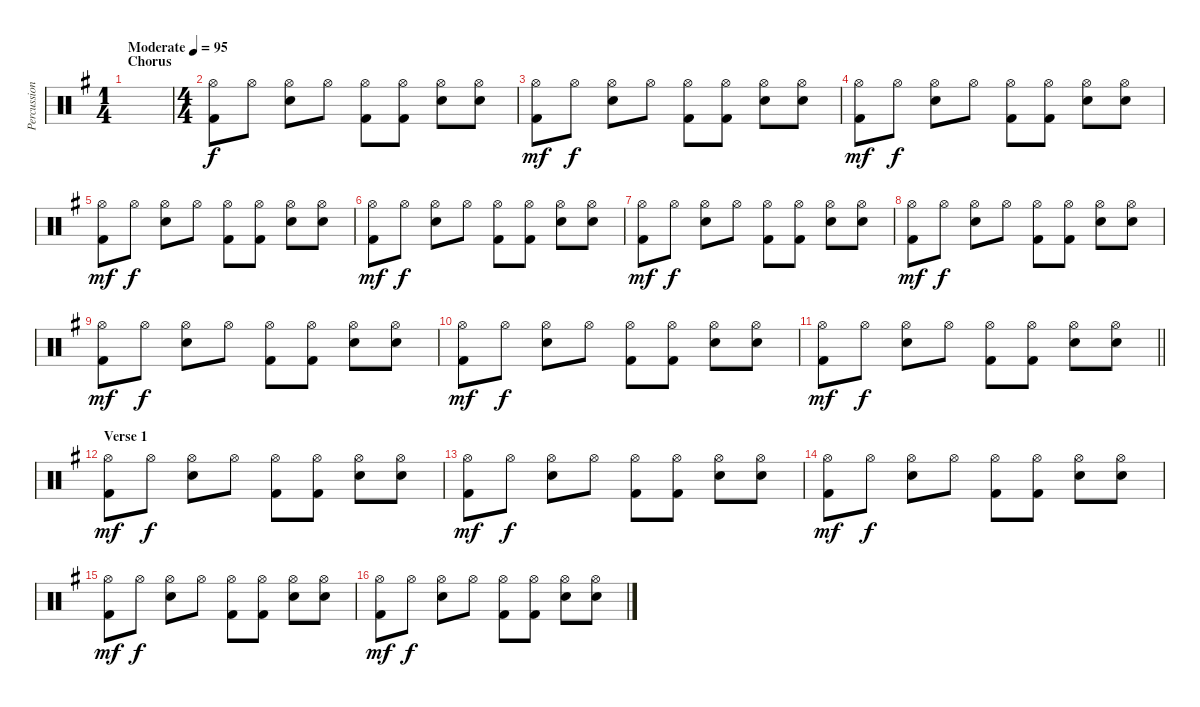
\track ("Percussion" "Percussion") {instrument percussion}
\staff {score}
\articulation defaults
\ts (1 4)
\section ("" "Chorus")
\tempo (95 "Moderate")
\clef neutral
\ks eminor
|
\ts (4 4)
("Hi-Hat (open)" "Kick (hit) 2").8 "Hi-Hat (open)".8{dy f} ("Hi-Hat (open)" "Snare (hit) 2").8 "Hi-Hat (open)".8 ("Hi-Hat (open)" "Kick (hit) 2").8 ("Hi-Hat (open)" "Kick (hit) 2").8 ("Hi-Hat (open)" "Snare (hit) 2").8 ("Hi-Hat (open)" "Snare (hit) 2").8 |
("Hi-Hat (open)" "Kick (hit) 2").8{dy mf} "Hi-Hat (open)".8{dy f} ("Hi-Hat (open)" "Snare (hit) 2").8 "Hi-Hat (open)".8 ("Hi-Hat (open)" "Kick (hit) 2").8 ("Hi-Hat (open)" "Kick (hit) 2").8 ("Hi-Hat (open)" "Snare (hit) 2").8 ("Hi-Hat (open)" "Snare (hit) 2").8 |
("Hi-Hat (open)" "Kick (hit) 2").8{dy mf} "Hi-Hat (open)".8{dy f} ("Hi-Hat (open)" "Snare (hit) 2").8 "Hi-Hat (open)".8 ("Hi-Hat (open)" "Kick (hit) 2").8 ("Hi-Hat (open)" "Kick (hit) 2").8 ("Hi-Hat (open)" "Snare (hit) 2").8 ("Hi-Hat (open)" "Snare (hit) 2").8 |
("Hi-Hat (open)" "Kick (hit) 2").8{dy mf} "Hi-Hat (open)".8{dy f} ("Hi-Hat (open)" "Snare (hit) 2").8 "Hi-Hat (open)".8 ("Hi-Hat (open)" "Kick (hit) 2").8 ("Hi-Hat (open)" "Kick (hit) 2").8 ("Hi-Hat (open)" "Snare (hit) 2").8 ("Hi-Hat (open)" "Snare (hit) 2").8 |
("Hi-Hat (open)" "Kick (hit) 2").8{dy mf} "Hi-Hat (open)".8{dy f} ("Hi-Hat (open)" "Snare (hit) 2").8 "Hi-Hat (open)".8 ("Hi-Hat (open)" "Kick (hit) 2").8 ("Hi-Hat (open)" "Kick (hit) 2").8 ("Hi-Hat (open)" "Snare (hit) 2").8 ("Hi-Hat (open)" "Snare (hit) 2").8 |
("Hi-Hat (open)" "Kick (hit) 2").8{dy mf} "Hi-Hat (open)".8{dy f} ("Hi-Hat (open)" "Snare (hit) 2").8 "Hi-Hat (open)".8 ("Hi-Hat (open)" "Kick (hit) 2").8 ("Hi-Hat (open)" "Kick (hit) 2").8 ("Hi-Hat (open)" "Snare (hit) 2").8 ("Hi-Hat (open)" "Snare (hit) 2").8 |
("Hi-Hat (open)" "Kick (hit) 2").8{dy mf} "Hi-Hat (open)".8{dy f} ("Hi-Hat (open)" "Snare (hit) 2").8 "Hi-Hat (open)".8 ("Hi-Hat (open)" "Kick (hit) 2").8 ("Hi-Hat (open)" "Kick (hit) 2").8 ("Hi-Hat (open)" "Snare (hit) 2").8 ("Hi-Hat (open)" "Snare (hit) 2").8 |
("Hi-Hat (open)" "Kick (hit) 2").8{dy mf} "Hi-Hat (open)".8{dy f} ("Hi-Hat (open)" "Snare (hit) 2").8 "Hi-Hat (open)".8 ("Hi-Hat (open)" "Kick (hit) 2").8 ("Hi-Hat (open)" "Kick (hit) 2").8 ("Hi-Hat (open)" "Snare (hit) 2").8 ("Hi-Hat (open)" "Snare (hit) 2").8 |
("Hi-Hat (open)" "Kick (hit) 2").8{dy mf} "Hi-Hat (open)".8{dy f} ("Hi-Hat (open)" "Snare (hit) 2").8 "Hi-Hat (open)".8 ("Hi-Hat (open)" "Kick (hit) 2").8 ("Hi-Hat (open)" "Kick (hit) 2").8 ("Hi-Hat (open)" "Snare (hit) 2").8 ("Hi-Hat (open)" "Snare (hit) 2").8 |
\barLineRight lightlight
("Hi-Hat (open)" "Kick (hit) 2").8{dy mf} "Hi-Hat (open)".8{dy f} ("Hi-Hat (open)" "Snare (hit) 2").8 "Hi-Hat (open)".8 ("Hi-Hat (open)" "Kick (hit) 2").8 ("Hi-Hat (open)" "Kick (hit) 2").8 ("Hi-Hat (open)" "Snare (hit) 2").8 ("Hi-Hat (open)" "Snare (hit) 2").8 |
\section ("" "Verse 1")
("Hi-Hat (open)" "Kick (hit) 2").8{dy mf} "Hi-Hat (open)".8{dy f} ("Hi-Hat (open)" "Snare (hit) 2").8 "Hi-Hat (open)".8 ("Hi-Hat (open)" "Kick (hit) 2").8 ("Hi-Hat (open)" "Kick (hit) 2").8 ("Hi-Hat (open)" "Snare (hit) 2").8 ("Hi-Hat (open)" "Snare (hit) 2").8 |
("Hi-Hat (open)" "Kick (hit) 2").8{dy mf} "Hi-Hat (open)".8{dy f} ("Hi-Hat (open)" "Snare (hit) 2").8 "Hi-Hat (open)".8 ("Hi-Hat (open)" "Kick (hit) 2").8 ("Hi-Hat (open)" "Kick (hit) 2").8 ("Hi-Hat (open)" "Snare (hit) 2").8 ("Hi-Hat (open)" "Snare (hit) 2").8 |
("Hi-Hat (open)" "Kick (hit) 2").8{dy mf} "Hi-Hat (open)".8{dy f} ("Hi-Hat (open)" "Snare (hit) 2").8 "Hi-Hat (open)".8 ("Hi-Hat (open)" "Kick (hit) 2").8 ("Hi-Hat (open)" "Kick (hit) 2").8 ("Hi-Hat (open)" "Snare (hit) 2").8 ("Hi-Hat (open)" "Snare (hit) 2").8 |
("Hi-Hat (open)" "Kick (hit) 2").8{dy mf} "Hi-Hat (open)".8{dy f} ("Hi-Hat (open)" "Snare (hit) 2").8 "Hi-Hat (open)".8 ("Hi-Hat (open)" "Kick (hit) 2").8 ("Hi-Hat (open)" "Kick (hit) 2").8 ("Hi-Hat (open)" "Snare (hit) 2").8 ("Hi-Hat (open)" "Snare (hit) 2").8 |
("Hi-Hat (open)" "Kick (hit) 2").8{dy mf} "Hi-Hat (open)".8{dy f} ("Hi-Hat (open)" "Snare (hit) 2").8 "Hi-Hat (open)".8 ("Hi-Hat (open)" "Kick (hit) 2").8 ("Hi-Hat (open)" "Kick (hit) 2").8 ("Hi-Hat (open)" "Snare (hit) 2").8 ("Hi-Hat (open)" "Snare (hit) 2").8
